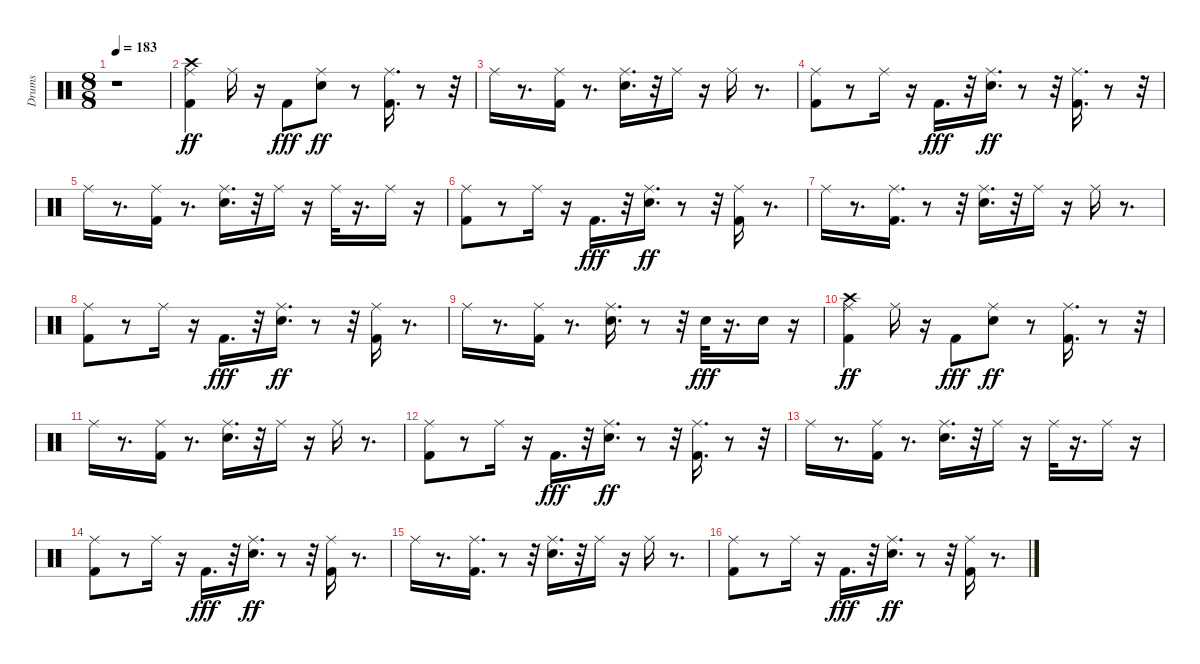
\track ("Drums" "Drums") {instrument percussion}
\staff {score}
\articulation defaults
\ts (8 8)
\tempo 183
\clef neutral
\ks c
r.1{dy ff} |
("Kick (hit) 2" "Ride (middle)" "Crash high (hit)").4 "Ride (middle)".16 r.16 "Kick (hit) 2".8{dy fff} ("Snare (hit) 2" "Ride (middle)").8{dy ff} r.8 ("Kick (hit) 2" "Ride (middle)").16{d} r.8 r.32 |
"Ride (middle)".16 r.8{d} ("Kick (hit) 2" "Ride (middle)").16 r.8{d} ("Snare (hit) 2" "Ride (middle)").16{d} r.32 "Ride (middle)".16 r.16 "Ride (middle)".16 r.8{d} |
("Kick (hit) 2" "Ride (middle)").8 r.8 "Ride (middle)".16 r.16 "Kick (hit) 2".16{d dy fff} r.32 ("Snare (hit) 2" "Ride (middle)").16{d dy ff} r.8 r.32 ("Kick (hit) 2" "Ride (middle)").16{d} r.8 r.32 |
"Ride (middle)".16 r.8{d} ("Kick (hit) 2" "Ride (middle)").16 r.8{d} ("Snare (hit) 2" "Ride (middle)").16{d} r.32 "Ride (middle)".16 r.16 "Ride (middle)".32 r.16{d} "Ride (middle)".16 r.16 |
("Kick (hit) 2" "Ride (middle)").8 r.8 "Ride (middle)".16 r.16 "Kick (hit) 2".16{d dy fff} r.32 ("Snare (hit) 2" "Ride (middle)").16{d dy ff} r.8 r.32 ("Kick (hit) 2" "Ride (middle)").16 r.8{d} |
"Ride (middle)".16 r.8{d} ("Kick (hit) 2" "Ride (middle)").16{d} r.8 r.32 ("Snare (hit) 2" "Ride (middle)").16{d} r.32 "Ride (middle)".16 r.16 "Ride (middle)".16 r.8{d} |
("Kick (hit) 2" "Ride (middle)").8 r.8 "Ride (middle)".16 r.16 "Kick (hit) 2".16{d dy fff} r.32 ("Snare (hit) 2" "Ride (middle)").16{d dy ff} r.8 r.32 ("Kick (hit) 2" "Ride (middle)").16 r.8{d} |
"Ride (middle)".16 r.8{d} ("Kick (hit) 2" "Ride (middle)").16 r.8{d} ("Snare (hit) 2" "Ride (middle)").16{d} r.8 r.32 "Snare (hit) 2".32{dy fff} r.16{d} "Snare (hit) 2".16 r.16 |
("Kick (hit) 2" "Ride (middle)" "Crash high (hit)").4{dy ff} "Ride (middle)".16 r.16 "Kick (hit) 2".8{dy fff} ("Snare (hit) 2" "Ride (middle)").8{dy ff} r.8 ("Kick (hit) 2" "Ride (middle)").16{d} r.8 r.32 |
"Ride (middle)".16 r.8{d} ("Kick (hit) 2" "Ride (middle)").16 r.8{d} ("Snare (hit) 2" "Ride (middle)").16{d} r.32 "Ride (middle)".16 r.16 "Ride (middle)".16 r.8{d} |
("Kick (hit) 2" "Ride (middle)").8 r.8 "Ride (middle)".16 r.16 "Kick (hit) 2".16{d dy fff} r.32 ("Snare (hit) 2" "Ride (middle)").16{d dy ff} r.8 r.32 ("Kick (hit) 2" "Ride (middle)").16{d} r.8 r.32 |
"Ride (middle)".16 r.8{d} ("Kick (hit) 2" "Ride (middle)").16 r.8{d} ("Snare (hit) 2" "Ride (middle)").16{d} r.32 "Ride (middle)".16 r.16 "Ride (middle)".32 r.16{d} "Ride (middle)".16 r.16 |
("Kick (hit) 2" "Ride (middle)").8 r.8 "Ride (middle)".16 r.16 "Kick (hit) 2".16{d dy fff} r.32 ("Snare (hit) 2" "Ride (middle)").16{d dy ff} r.8 r.32 ("Kick (hit) 2" "Ride (middle)").16 r.8{d} |
"Ride (middle)".16 r.8{d} ("Kick (hit) 2" "Ride (middle)").16{d} r.8 r.32 ("Snare (hit) 2" "Ride (middle)").16{d} r.32 "Ride (middle)".16 r.16 "Ride (middle)".16 r.8{d} |
("Kick (hit) 2" "Ride (middle)").8 r.8 "Ride (middle)".16 r.16 "Kick (hit) 2".16{d dy fff} r.32 ("Snare (hit) 2" "Ride (middle)").16{d dy ff} r.8 r.32 ("Kick (hit) 2" "Ride (middle)").16 r.8{d}
